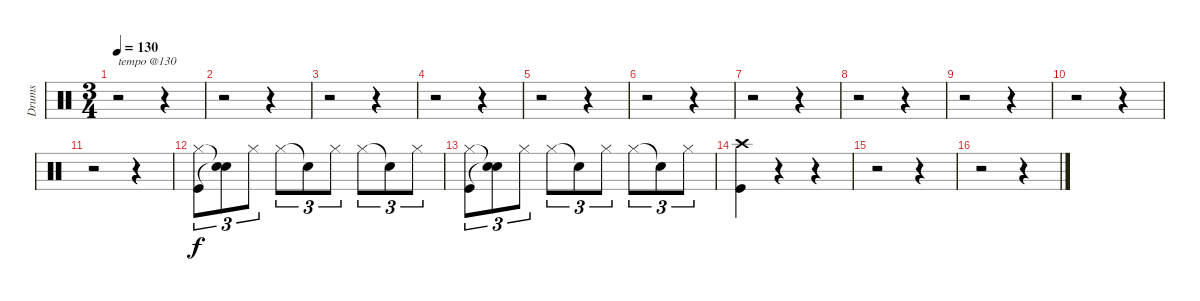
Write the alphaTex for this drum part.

\track ("Drums" "Drums") {instrument percussion}
\staff {score}
\articulation defaults
\ts (3 4)
\tempo 130
\clef neutral
\ks c
r.2{txt "tempo @130" dy f} r.4 |
r.2 r.4 |
r.2 r.4 |
r.2 r.4 |
r.2 r.4 |
r.2 r.4 |
r.2 r.4 |
r.2 r.4 |
r.2 r.4 |
r.2 r.4 |
r.2 r.4 |
("Hi-Hat (closed)" "Kick (hit)").8{tu (3 2)} ("Snare (hit)"{t} "Snare (hit)"{t}).8{tu (3 2)} "Hi-Hat (closed)".8{tu (3 2)} "Hi-Hat (closed)".8{tu (3 2)} "Snare (hit)"{t}.8{tu (3 2)} "Hi-Hat (closed)".8{tu (3 2)} "Hi-Hat (closed)".8{tu (3 2)} "Snare (hit)"{t}.8{tu (3 2)} "Hi-Hat (closed)".8{tu (3 2)} |
("Hi-Hat (closed)" "Kick (hit)").8{tu (3 2)} ("Snare (hit)"{t} "Snare (hit)"{t}).8{tu (3 2)} "Hi-Hat (closed)".8{tu (3 2)} "Hi-Hat (closed)".8{tu (3 2)} "Snare (hit)"{t}.8{tu (3 2)} "Hi-Hat (closed)".8{tu (3 2)} "Hi-Hat (closed)".8{tu (3 2)} "Snare (hit)"{t}.8{tu (3 2)} "Hi-Hat (closed)".8{tu (3 2)} |
("Crash high (hit)" "Kick (hit)").4 r.4 r.4 |
r.2 r.4 |
r.2 r.4
